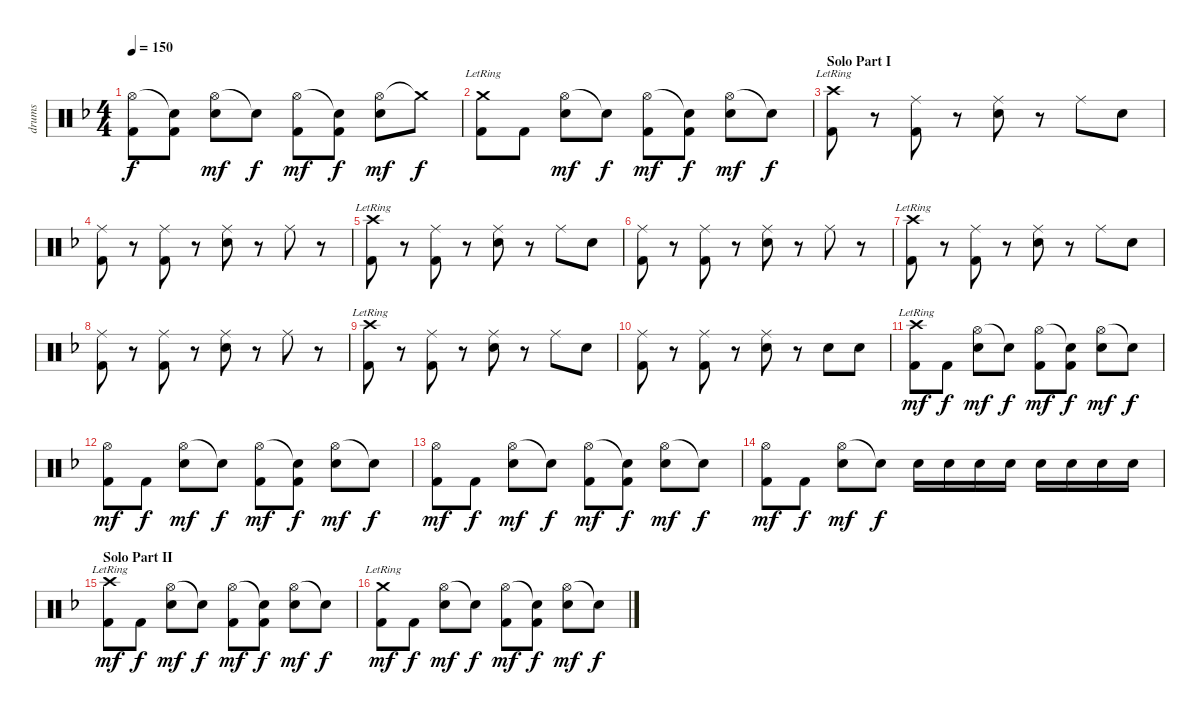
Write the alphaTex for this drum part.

\track ("drums" "drums") {instrument percussion}
\staff {score}
\articulation defaults
\ts (4 4)
\tempo 150
\clef neutral
\ks dminor
("Hi-Hat (open)"{t} "Kick (hit) 2").8{dy f} ("Snare (hit)"{t} "Kick (hit) 2").8 ("Hi-Hat (open)" "Electric Snare (hit)").8{dy mf} "Snare (hit)"{t}.8{dy f} ("Hi-Hat (open)" "Kick (hit) 2").8{dy mf} ("Snare (hit)"{t} "Kick (hit) 2").8{dy f} ("Hi-Hat (open)" "Electric Snare (hit)").8{dy mf} "Crash medium (hit)"{t}.8{dy f} |
("Crash medium (hit)"{lr} "Kick (hit) 2").8 "Kick (hit) 2".8 ("Hi-Hat (open)" "Electric Snare (hit)").8{dy mf} "Snare (hit)"{t}.8{dy f} ("Hi-Hat (open)" "Kick (hit) 2").8{dy mf} ("Snare (hit)"{t} "Kick (hit) 2").8{dy f} ("Hi-Hat (open)" "Electric Snare (hit)").8{dy mf} "Snare (hit)"{t}.8{dy f} |
\section ("" "Solo Part I")
("Crash high (hit)"{lr} "Kick (hit) 2").8 r.8 ("Ride (middle)" "Kick (hit) 2").8 r.8 ("Ride (middle)" "Electric Snare (hit)").8 r.8 "Ride (middle)".8 "Electric Snare (hit)".8 |
("Ride (middle)" "Kick (hit) 2").8 r.8 ("Ride (middle)" "Kick (hit) 2").8 r.8 ("Ride (middle)" "Electric Snare (hit)").8 r.8 "Ride (middle)".8 r.8 |
("Crash high (hit)"{lr} "Kick (hit) 2").8 r.8 ("Ride (middle)" "Kick (hit) 2").8 r.8 ("Ride (middle)" "Electric Snare (hit)").8 r.8 "Ride (middle)".8 "Electric Snare (hit)".8 |
("Ride (middle)" "Kick (hit) 2").8 r.8 ("Ride (middle)" "Kick (hit) 2").8 r.8 ("Ride (middle)" "Electric Snare (hit)").8 r.8 "Ride (middle)".8 r.8 |
("Crash high (hit)"{lr} "Kick (hit) 2").8 r.8 ("Ride (middle)" "Kick (hit) 2").8 r.8 ("Ride (middle)" "Electric Snare (hit)").8 r.8 "Ride (middle)".8 "Electric Snare (hit)".8 |
("Ride (middle)" "Kick (hit) 2").8 r.8 ("Ride (middle)" "Kick (hit) 2").8 r.8 ("Ride (middle)" "Electric Snare (hit)").8 r.8 "Ride (middle)".8 r.8 |
("Crash high (hit)"{lr} "Kick (hit) 2").8 r.8 ("Ride (middle)" "Kick (hit) 2").8 r.8 ("Ride (middle)" "Electric Snare (hit)").8 r.8 "Ride (middle)".8 "Electric Snare (hit)".8 |
("Ride (middle)" "Kick (hit) 2").8 r.8 ("Ride (middle)" "Kick (hit) 2").8 r.8 ("Ride (middle)" "Electric Snare (hit)").8 r.8 "Electric Snare (hit)".8 "Electric Snare (hit)".8 |
("Crash high (hit)"{lr} "Kick (hit) 2").8{dy mf} "Kick (hit) 2".8{dy f} ("Hi-Hat (open)" "Electric Snare (hit)").8{dy mf} "Snare (hit)"{t}.8{dy f} ("Hi-Hat (open)" "Kick (hit) 2").8{dy mf} ("Snare (hit)"{t} "Kick (hit) 2").8{dy f} ("Hi-Hat (open)" "Electric Snare (hit)").8{dy mf} "Snare (hit)"{t}.8{dy f} |
("Hi-Hat (open)" "Kick (hit) 2").8{dy mf} "Kick (hit) 2".8{dy f} ("Hi-Hat (open)" "Electric Snare (hit)").8{dy mf} "Snare (hit)"{t}.8{dy f} ("Hi-Hat (open)" "Kick (hit) 2").8{dy mf} ("Snare (hit)"{t} "Kick (hit) 2").8{dy f} ("Hi-Hat (open)" "Electric Snare (hit)").8{dy mf} "Snare (hit)"{t}.8{dy f} |
("Hi-Hat (open)" "Kick (hit) 2").8{dy mf} "Kick (hit) 2".8{dy f} ("Hi-Hat (open)" "Electric Snare (hit)").8{dy mf} "Snare (hit)"{t}.8{dy f} ("Hi-Hat (open)" "Kick (hit) 2").8{dy mf} ("Snare (hit)"{t} "Kick (hit) 2").8{dy f} ("Hi-Hat (open)" "Electric Snare (hit)").8{dy mf} "Snare (hit)"{t}.8{dy f} |
("Hi-Hat (open)" "Kick (hit) 2").8{dy mf} "Kick (hit) 2".8{dy f} ("Hi-Hat (open)" "Electric Snare (hit)").8{dy mf} "Snare (hit)"{t}.8{dy f} "Electric Snare (hit)".16 "Electric Snare (hit)".16 "Electric Snare (hit)".16 "Electric Snare (hit)".16 "Electric Snare (hit)".16 "Electric Snare (hit)".16 "Electric Snare (hit)".16 "Electric Snare (hit)".16 |
\section ("" "Solo Part II")
("Crash high (hit)"{lr} "Kick (hit) 2").8{dy mf} "Kick (hit) 2".8{dy f} ("Hi-Hat (open)" "Electric Snare (hit)").8{dy mf} "Snare (hit)"{t}.8{dy f} ("Hi-Hat (open)" "Kick (hit) 2").8{dy mf} ("Snare (hit)"{t} "Kick (hit) 2").8{dy f} ("Hi-Hat (open)" "Electric Snare (hit)").8{dy mf} "Snare (hit)"{t}.8{dy f} |
("Crash medium (hit)"{lr} "Kick (hit) 2").8{dy mf} "Kick (hit) 2".8{dy f} ("Hi-Hat (open)" "Electric Snare (hit)").8{dy mf} "Snare (hit)"{t}.8{dy f} ("Hi-Hat (open)" "Kick (hit) 2").8{dy mf} ("Snare (hit)"{t} "Kick (hit) 2").8{dy f} ("Hi-Hat (open)" "Electric Snare (hit)").8{dy mf} "Snare (hit)"{t}.8{dy f}
